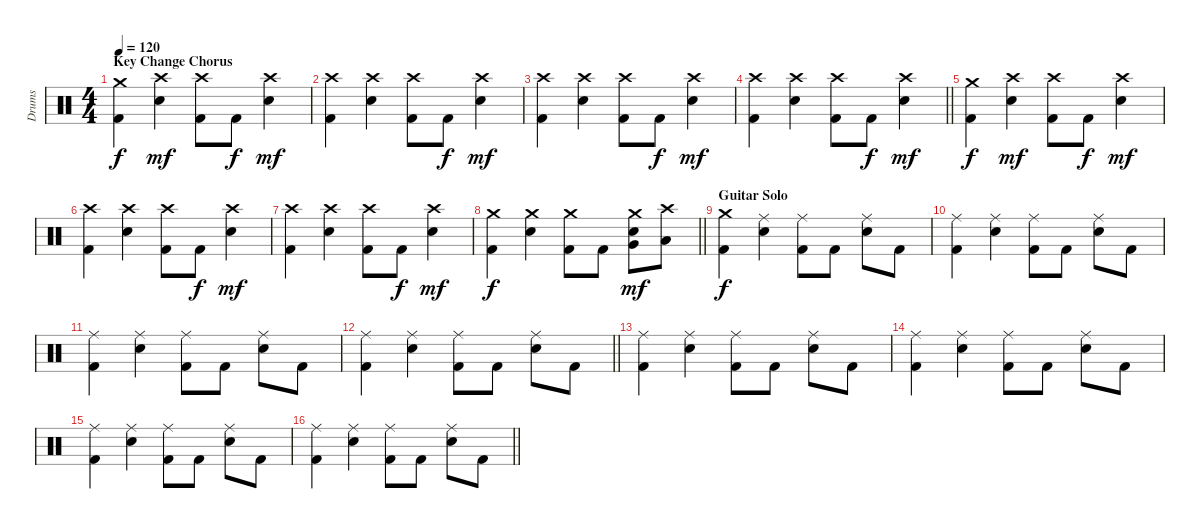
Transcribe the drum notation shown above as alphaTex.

\track ("Drums" "Drums") {instrument percussion}
\staff {score}
\articulation defaults
\ts (4 4)
\section ("" "Key Change Chorus")
\tempo 120
\clef neutral
\ks c
("Crash medium (hit)" "Kick (hit) 2").4{dy f} ("Crash high (hit)" "Electric Snare (hit)").4{dy mf} ("Crash high (hit)" "Kick (hit) 2").8 "Kick (hit) 2".8{dy f} ("Crash high (hit)" "Electric Snare (hit)").4{dy mf} |
("Crash high (hit)" "Kick (hit) 2").4 ("Crash high (hit)" "Electric Snare (hit)").4 ("Crash high (hit)" "Kick (hit) 2").8 "Kick (hit) 2".8{dy f} ("Crash high (hit)" "Electric Snare (hit)").4{dy mf} |
("Crash high (hit)" "Kick (hit) 2").4 ("Crash high (hit)" "Electric Snare (hit)").4 ("Crash high (hit)" "Kick (hit) 2").8 "Kick (hit) 2".8{dy f} ("Crash high (hit)" "Electric Snare (hit)").4{dy mf} |
\barLineRight lightlight
("Crash high (hit)" "Kick (hit) 2").4 ("Crash high (hit)" "Electric Snare (hit)").4 ("Crash high (hit)" "Kick (hit) 2").8 "Kick (hit) 2".8{dy f} ("Crash high (hit)" "Electric Snare (hit)").4{dy mf} |
("Crash medium (hit)" "Kick (hit) 2").4{dy f} ("Crash high (hit)" "Electric Snare (hit)").4{dy mf} ("Crash high (hit)" "Kick (hit) 2").8 "Kick (hit) 2".8{dy f} ("Crash high (hit)" "Electric Snare (hit)").4{dy mf} |
("Crash high (hit)" "Kick (hit) 2").4 ("Crash high (hit)" "Electric Snare (hit)").4 ("Crash high (hit)" "Kick (hit) 2").8 "Kick (hit) 2".8{dy f} ("Crash high (hit)" "Electric Snare (hit)").4{dy mf} |
("Crash high (hit)" "Kick (hit) 2").4 ("Crash high (hit)" "Electric Snare (hit)").4 ("Crash high (hit)" "Kick (hit) 2").8 "Kick (hit) 2".8{dy f} ("Crash high (hit)" "Electric Snare (hit)").4{dy mf} |
\barLineRight lightlight
("Crash medium (hit)" "Kick (hit) 2").4{dy f} ("Crash medium (hit)" "Electric Snare (hit)").4 ("Crash medium (hit)" "Kick (hit) 2").8 "Kick (hit) 2".8 ("Crash medium (hit)" "Very Low Tom (hit)" "Electric Snare (hit)").8{dy mf} ("Crash high (hit)" "Low Floor Tom (hit)").8 |
\section ("" "Guitar Solo")
("Crash medium (hit)" "Kick (hit) 2").4{dy f} ("Ride (middle)" "Electric Snare (hit)").4 ("Ride (middle)" "Kick (hit) 2").8 "Kick (hit) 2".8 ("Ride (middle)" "Electric Snare (hit)").8 "Kick (hit) 2".8 |
("Ride (middle)" "Kick (hit) 2").4 ("Ride (middle)" "Electric Snare (hit)").4 ("Ride (middle)" "Kick (hit) 2").8 "Kick (hit) 2".8 ("Ride (middle)" "Electric Snare (hit)").8 "Kick (hit) 2".8 |
("Ride (middle)" "Kick (hit) 2").4 ("Ride (middle)" "Electric Snare (hit)").4 ("Ride (middle)" "Kick (hit) 2").8 "Kick (hit) 2".8 ("Ride (middle)" "Electric Snare (hit)").8 "Kick (hit) 2".8 |
\barLineRight lightlight
("Ride (middle)" "Kick (hit) 2").4 ("Ride (middle)" "Electric Snare (hit)").4 ("Ride (middle)" "Kick (hit) 2").8 "Kick (hit) 2".8 ("Ride (middle)" "Electric Snare (hit)").8 "Kick (hit) 2".8 |
("Ride (middle)" "Kick (hit) 2").4 ("Ride (middle)" "Electric Snare (hit)").4 ("Ride (middle)" "Kick (hit) 2").8 "Kick (hit) 2".8 ("Ride (middle)" "Electric Snare (hit)").8 "Kick (hit) 2".8 |
("Ride (middle)" "Kick (hit) 2").4 ("Ride (middle)" "Electric Snare (hit)").4 ("Ride (middle)" "Kick (hit) 2").8 "Kick (hit) 2".8 ("Ride (middle)" "Electric Snare (hit)").8 "Kick (hit) 2".8 |
("Ride (middle)" "Kick (hit) 2").4 ("Ride (middle)" "Electric Snare (hit)").4 ("Ride (middle)" "Kick (hit) 2").8 "Kick (hit) 2".8 ("Ride (middle)" "Electric Snare (hit)").8 "Kick (hit) 2".8 |
\barLineRight lightlight
("Ride (middle)" "Kick (hit) 2").4 ("Ride (middle)" "Electric Snare (hit)").4 ("Ride (middle)" "Kick (hit) 2").8 "Kick (hit) 2".8 ("Ride (middle)" "Electric Snare (hit)").8 "Kick (hit) 2".8
